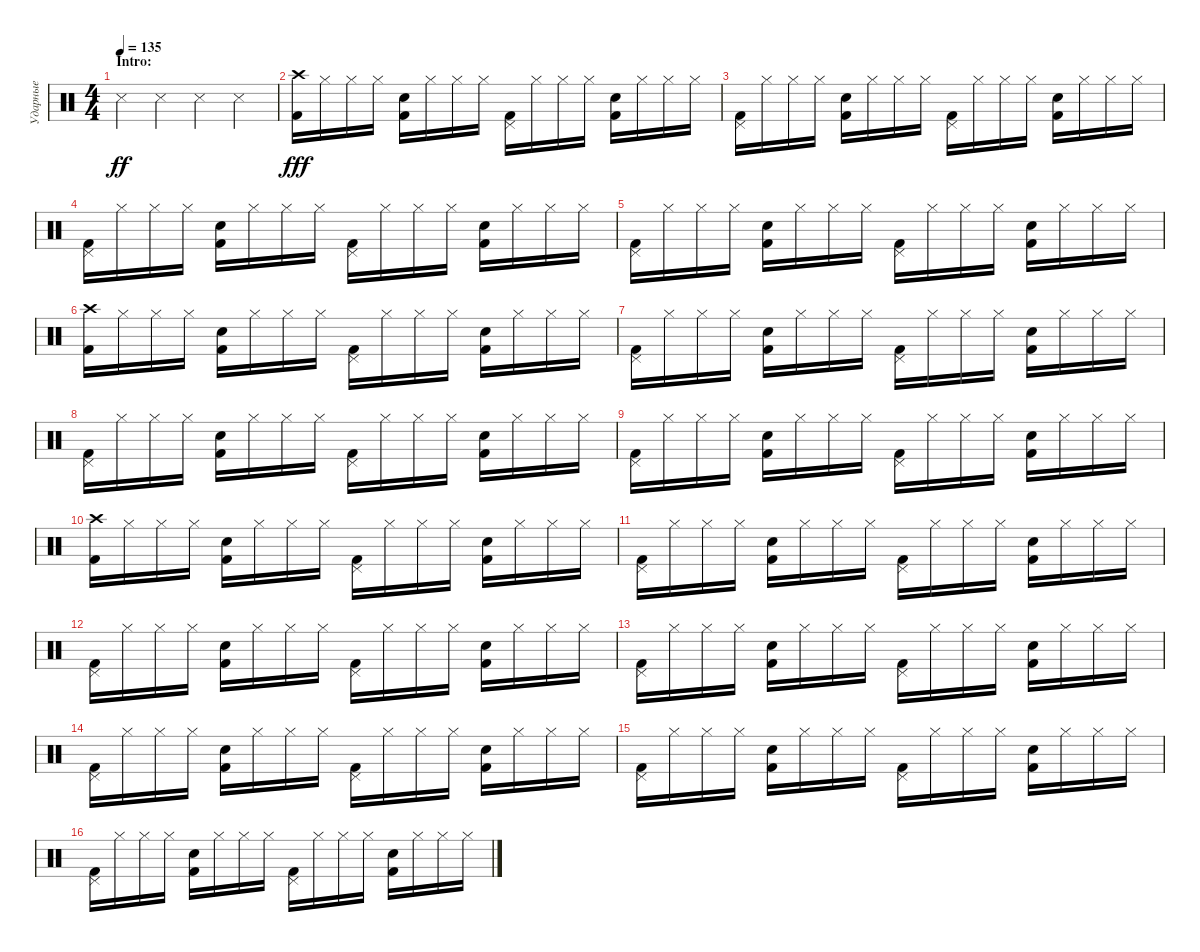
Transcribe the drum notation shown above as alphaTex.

\track ("Ударные" "Ударные") {instrument percussion}
\staff {score}
\articulation defaults
\ts (4 4)
\section ("" "Intro:")
\tempo 135
\clef neutral
\ks c "Metronome (hit)".4{dy ff} "Metronome (hit)".4 "Metronome (hit)".4 "Metronome (hit)".4
|
("Crash high (hit)" "Kick (hit) 2").16{dy fff} "Hi-Hat (closed)".16 "Hi-Hat (closed)".16 "Hi-Hat (closed)".16 ("Snare (hit) 2" "Kick (hit) 2").16 "Hi-Hat (closed)".16 "Hi-Hat (closed)".16 "Hi-Hat (closed)".16 ("Pedal Hi-Hat (hit)" "Kick (hit) 2").16 "Hi-Hat (closed)".16 "Hi-Hat (closed)".16 "Hi-Hat (closed)".16 ("Snare (hit) 2" "Kick (hit) 2").16 "Hi-Hat (closed)".16 "Hi-Hat (closed)".16 "Hi-Hat (closed)".16 |
("Pedal Hi-Hat (hit)" "Kick (hit) 2").16 "Hi-Hat (closed)".16 "Hi-Hat (closed)".16 "Hi-Hat (closed)".16 ("Snare (hit) 2" "Kick (hit) 2").16 "Hi-Hat (closed)".16 "Hi-Hat (closed)".16 "Hi-Hat (closed)".16 ("Pedal Hi-Hat (hit)" "Kick (hit) 2").16 "Hi-Hat (closed)".16 "Hi-Hat (closed)".16 "Hi-Hat (closed)".16 ("Snare (hit) 2" "Kick (hit) 2").16 "Hi-Hat (closed)".16 "Hi-Hat (closed)".16 "Hi-Hat (closed)".16 |
("Pedal Hi-Hat (hit)" "Kick (hit) 2").16 "Hi-Hat (closed)".16 "Hi-Hat (closed)".16 "Hi-Hat (closed)".16 ("Snare (hit) 2" "Kick (hit) 2").16 "Hi-Hat (closed)".16 "Hi-Hat (closed)".16 "Hi-Hat (closed)".16 ("Pedal Hi-Hat (hit)" "Kick (hit) 2").16 "Hi-Hat (closed)".16 "Hi-Hat (closed)".16 "Hi-Hat (closed)".16 ("Snare (hit) 2" "Kick (hit) 2").16 "Hi-Hat (closed)".16 "Hi-Hat (closed)".16 "Hi-Hat (closed)".16 |
("Pedal Hi-Hat (hit)" "Kick (hit) 2").16 "Hi-Hat (closed)".16 "Hi-Hat (closed)".16 "Hi-Hat (closed)".16 ("Snare (hit) 2" "Kick (hit) 2").16 "Hi-Hat (closed)".16 "Hi-Hat (closed)".16 "Hi-Hat (closed)".16 ("Pedal Hi-Hat (hit)" "Kick (hit) 2").16 "Hi-Hat (closed)".16 "Hi-Hat (closed)".16 "Hi-Hat (closed)".16 ("Snare (hit) 2" "Kick (hit) 2").16 "Hi-Hat (closed)".16 "Hi-Hat (closed)".16 "Hi-Hat (closed)".16 |
("Crash high (hit)" "Kick (hit) 2").16 "Hi-Hat (closed)".16 "Hi-Hat (closed)".16 "Hi-Hat (closed)".16 ("Snare (hit) 2" "Kick (hit) 2").16 "Hi-Hat (closed)".16 "Hi-Hat (closed)".16 "Hi-Hat (closed)".16 ("Pedal Hi-Hat (hit)" "Kick (hit) 2").16 "Hi-Hat (closed)".16 "Hi-Hat (closed)".16 "Hi-Hat (closed)".16 ("Snare (hit) 2" "Kick (hit) 2").16 "Hi-Hat (closed)".16 "Hi-Hat (closed)".16 "Hi-Hat (closed)".16 |
("Pedal Hi-Hat (hit)" "Kick (hit) 2").16 "Hi-Hat (closed)".16 "Hi-Hat (closed)".16 "Hi-Hat (closed)".16 ("Snare (hit) 2" "Kick (hit) 2").16 "Hi-Hat (closed)".16 "Hi-Hat (closed)".16 "Hi-Hat (closed)".16 ("Pedal Hi-Hat (hit)" "Kick (hit) 2").16 "Hi-Hat (closed)".16 "Hi-Hat (closed)".16 "Hi-Hat (closed)".16 ("Snare (hit) 2" "Kick (hit) 2").16 "Hi-Hat (closed)".16 "Hi-Hat (closed)".16 "Hi-Hat (closed)".16 |
("Pedal Hi-Hat (hit)" "Kick (hit) 2").16 "Hi-Hat (closed)".16 "Hi-Hat (closed)".16 "Hi-Hat (closed)".16 ("Snare (hit) 2" "Kick (hit) 2").16 "Hi-Hat (closed)".16 "Hi-Hat (closed)".16 "Hi-Hat (closed)".16 ("Pedal Hi-Hat (hit)" "Kick (hit) 2").16 "Hi-Hat (closed)".16 "Hi-Hat (closed)".16 "Hi-Hat (closed)".16 ("Snare (hit) 2" "Kick (hit) 2").16 "Hi-Hat (closed)".16 "Hi-Hat (closed)".16 "Hi-Hat (closed)".16 |
("Pedal Hi-Hat (hit)" "Kick (hit) 2").16 "Hi-Hat (closed)".16 "Hi-Hat (closed)".16 "Hi-Hat (closed)".16 ("Snare (hit) 2" "Kick (hit) 2").16 "Hi-Hat (closed)".16 "Hi-Hat (closed)".16 "Hi-Hat (closed)".16 ("Pedal Hi-Hat (hit)" "Kick (hit) 2").16 "Hi-Hat (closed)".16 "Hi-Hat (closed)".16 "Hi-Hat (closed)".16 ("Snare (hit) 2" "Kick (hit) 2").16 "Hi-Hat (closed)".16 "Hi-Hat (closed)".16 "Hi-Hat (closed)".16 |
("Crash high (hit)" "Kick (hit) 2").16 "Hi-Hat (closed)".16 "Hi-Hat (closed)".16 "Hi-Hat (closed)".16 ("Snare (hit) 2" "Kick (hit) 2").16 "Hi-Hat (closed)".16 "Hi-Hat (closed)".16 "Hi-Hat (closed)".16 ("Pedal Hi-Hat (hit)" "Kick (hit) 2").16 "Hi-Hat (closed)".16 "Hi-Hat (closed)".16 "Hi-Hat (closed)".16 ("Snare (hit) 2" "Kick (hit) 2").16 "Hi-Hat (closed)".16 "Hi-Hat (closed)".16 "Hi-Hat (closed)".16 |
("Pedal Hi-Hat (hit)" "Kick (hit) 2").16 "Hi-Hat (closed)".16 "Hi-Hat (closed)".16 "Hi-Hat (closed)".16 ("Snare (hit) 2" "Kick (hit) 2").16 "Hi-Hat (closed)".16 "Hi-Hat (closed)".16 "Hi-Hat (closed)".16 ("Pedal Hi-Hat (hit)" "Kick (hit) 2").16 "Hi-Hat (closed)".16 "Hi-Hat (closed)".16 "Hi-Hat (closed)".16 ("Snare (hit) 2" "Kick (hit) 2").16 "Hi-Hat (closed)".16 "Hi-Hat (closed)".16 "Hi-Hat (closed)".16 |
("Pedal Hi-Hat (hit)" "Kick (hit) 2").16 "Hi-Hat (closed)".16 "Hi-Hat (closed)".16 "Hi-Hat (closed)".16 ("Snare (hit) 2" "Kick (hit) 2").16 "Hi-Hat (closed)".16 "Hi-Hat (closed)".16 "Hi-Hat (closed)".16 ("Pedal Hi-Hat (hit)" "Kick (hit) 2").16 "Hi-Hat (closed)".16 "Hi-Hat (closed)".16 "Hi-Hat (closed)".16 ("Snare (hit) 2" "Kick (hit) 2").16 "Hi-Hat (closed)".16 "Hi-Hat (closed)".16 "Hi-Hat (closed)".16 |
("Pedal Hi-Hat (hit)" "Kick (hit) 2").16 "Hi-Hat (closed)".16 "Hi-Hat (closed)".16 "Hi-Hat (closed)".16 ("Snare (hit) 2" "Kick (hit) 2").16 "Hi-Hat (closed)".16 "Hi-Hat (closed)".16 "Hi-Hat (closed)".16 ("Pedal Hi-Hat (hit)" "Kick (hit) 2").16 "Hi-Hat (closed)".16 "Hi-Hat (closed)".16 "Hi-Hat (closed)".16 ("Snare (hit) 2" "Kick (hit) 2").16 "Hi-Hat (closed)".16 "Hi-Hat (closed)".16 "Hi-Hat (closed)".16 |
("Pedal Hi-Hat (hit)" "Kick (hit) 2").16 "Hi-Hat (closed)".16 "Hi-Hat (closed)".16 "Hi-Hat (closed)".16 ("Snare (hit) 2" "Kick (hit) 2").16 "Hi-Hat (closed)".16 "Hi-Hat (closed)".16 "Hi-Hat (closed)".16 ("Pedal Hi-Hat (hit)" "Kick (hit) 2").16 "Hi-Hat (closed)".16 "Hi-Hat (closed)".16 "Hi-Hat (closed)".16 ("Snare (hit) 2" "Kick (hit) 2").16 "Hi-Hat (closed)".16 "Hi-Hat (closed)".16 "Hi-Hat (closed)".16 |
("Pedal Hi-Hat (hit)" "Kick (hit) 2").16 "Hi-Hat (closed)".16 "Hi-Hat (closed)".16 "Hi-Hat (closed)".16 ("Snare (hit) 2" "Kick (hit) 2").16 "Hi-Hat (closed)".16 "Hi-Hat (closed)".16 "Hi-Hat (closed)".16 ("Pedal Hi-Hat (hit)" "Kick (hit) 2").16 "Hi-Hat (closed)".16 "Hi-Hat (closed)".16 "Hi-Hat (closed)".16 ("Snare (hit) 2" "Kick (hit) 2").16 "Hi-Hat (closed)".16 "Hi-Hat (closed)".16 "Hi-Hat (closed)".16 |
("Pedal Hi-Hat (hit)" "Kick (hit) 2").16 "Hi-Hat (closed)".16 "Hi-Hat (closed)".16 "Hi-Hat (closed)".16 ("Snare (hit) 2" "Kick (hit) 2").16 "Hi-Hat (closed)".16 "Hi-Hat (closed)".16 "Hi-Hat (closed)".16 ("Pedal Hi-Hat (hit)" "Kick (hit) 2").16 "Hi-Hat (closed)".16 "Hi-Hat (closed)".16 "Hi-Hat (closed)".16 ("Snare (hit) 2" "Kick (hit) 2").16 "Hi-Hat (closed)".16 "Hi-Hat (closed)".16 "Hi-Hat (closed)".16
